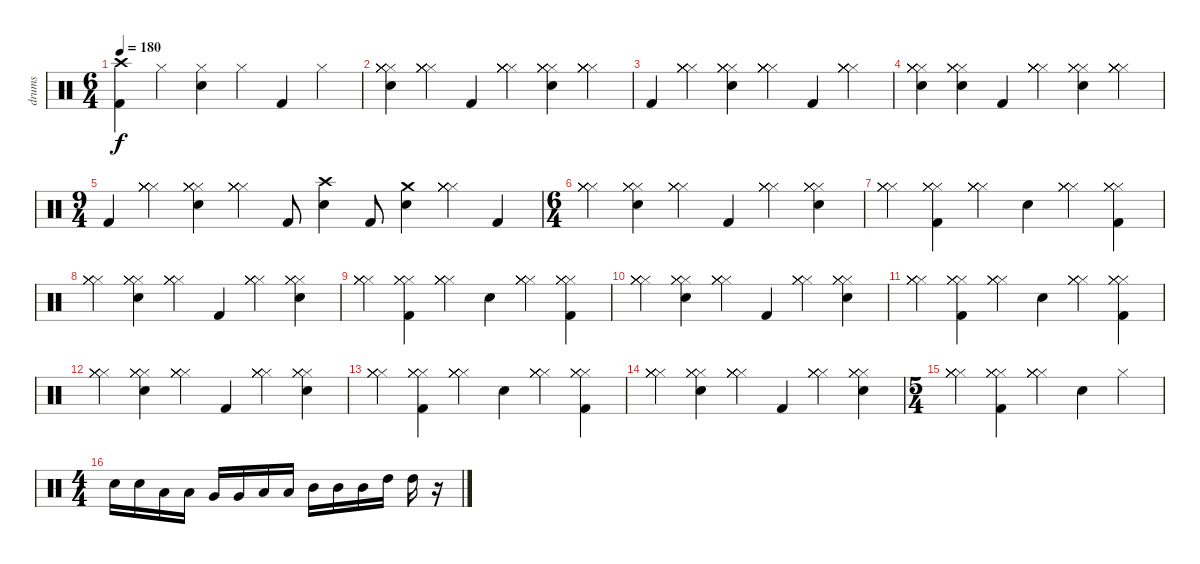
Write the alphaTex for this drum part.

\track ("drums" "drums") {instrument percussion}
\staff {score}
\articulation defaults
\ts (6 4)
\tempo 180
\clef neutral
\ks c
("Crash high (hit)" "Kick (hit) 2").4{dy f} "Hi-Hat (closed)".4 ("Snare (hit) 2" "Hi-Hat (closed)").4 "Hi-Hat (closed)".4 "Kick (hit) 2".4 "Hi-Hat (closed)".4 |
("Snare (hit) 2" "Hi-Hat (closed)" "Hi-Hat (closed)" "Hi-Hat (closed)" "Hi-Hat (closed)" "Hi-Hat (closed)").4 ("Hi-Hat (closed)" "Hi-Hat (closed)" "Hi-Hat (closed)" "Hi-Hat (closed)" "Hi-Hat (closed)" "Hi-Hat (closed)").4 "Kick (hit) 2".4 ("Hi-Hat (closed)" "Hi-Hat (closed)" "Hi-Hat (closed)" "Hi-Hat (closed)" "Hi-Hat (closed)" "Hi-Hat (closed)").4 ("Snare (hit) 2" "Hi-Hat (closed)" "Hi-Hat (closed)" "Hi-Hat (closed)" "Hi-Hat (closed)" "Hi-Hat (closed)").4 ("Hi-Hat (closed)" "Hi-Hat (closed)" "Hi-Hat (closed)" "Hi-Hat (closed)" "Hi-Hat (closed)" "Hi-Hat (closed)").4 |
"Kick (hit) 2".4 ("Hi-Hat (closed)" "Hi-Hat (closed)" "Hi-Hat (closed)" "Hi-Hat (closed)" "Hi-Hat (closed)" "Hi-Hat (closed)").4 ("Snare (hit) 2" "Hi-Hat (closed)" "Hi-Hat (closed)" "Hi-Hat (closed)" "Hi-Hat (closed)" "Hi-Hat (closed)").4 ("Hi-Hat (closed)" "Hi-Hat (closed)" "Hi-Hat (closed)" "Hi-Hat (closed)" "Hi-Hat (closed)" "Hi-Hat (closed)").4 "Kick (hit) 2".4 ("Hi-Hat (closed)" "Hi-Hat (closed)" "Hi-Hat (closed)" "Hi-Hat (closed)" "Hi-Hat (closed)" "Hi-Hat (closed)").4 |
("Snare (hit) 2" "Hi-Hat (closed)" "Hi-Hat (closed)" "Hi-Hat (closed)" "Hi-Hat (closed)" "Hi-Hat (closed)").4 ("Hi-Hat (closed)" "Hi-Hat (closed)" "Hi-Hat (closed)" "Hi-Hat (closed)" "Hi-Hat (closed)" "Snare (hit)").4 "Kick (hit) 2".4 ("Hi-Hat (closed)" "Hi-Hat (closed)" "Hi-Hat (closed)" "Hi-Hat (closed)" "Hi-Hat (closed)" "Hi-Hat (closed)").4 ("Snare (hit) 2" "Hi-Hat (closed)" "Hi-Hat (closed)" "Hi-Hat (closed)" "Hi-Hat (closed)").4 ("Hi-Hat (closed)" "Hi-Hat (closed)" "Hi-Hat (closed)" "Hi-Hat (closed)" "Hi-Hat (closed)" "Hi-Hat (closed)").4 |
\ts (9 4)
"Kick (hit) 2".4 ("Hi-Hat (closed)" "Hi-Hat (closed)" "Hi-Hat (closed)" "Hi-Hat (closed)" "Hi-Hat (closed)" "Hi-Hat (closed)").4 ("Snare (hit) 2" "Hi-Hat (closed)" "Hi-Hat (closed)" "Hi-Hat (closed)" "Hi-Hat (closed)" "Hi-Hat (closed)").4 ("Hi-Hat (closed)" "Hi-Hat (closed)" "Hi-Hat (closed)" "Hi-Hat (closed)" "Hi-Hat (closed)" "Hi-Hat (closed)").4 "Kick (hit) 2".8 ("Crash high (hit)" "Snare (hit) 2").4 "Kick (hit) 2".8 ("Crash medium (hit)" "Snare (hit) 2").4 ("Hi-Hat (closed)" "Hi-Hat (closed)" "Hi-Hat (closed)" "Hi-Hat (closed)" "Hi-Hat (closed)" "Hi-Hat (closed)").4 "Kick (hit) 2".4 |
\ts (6 4)
("Hi-Hat (closed)" "Hi-Hat (closed)" "Hi-Hat (closed)" "Hi-Hat (closed)" "Hi-Hat (closed)").4 ("Snare (hit) 2" "Hi-Hat (closed)" "Hi-Hat (closed)" "Hi-Hat (closed)" "Hi-Hat (closed)").4 ("Hi-Hat (closed)" "Hi-Hat (closed)" "Hi-Hat (closed)" "Hi-Hat (closed)" "Hi-Hat (closed)").4 "Kick (hit) 2".4 ("Hi-Hat (closed)" "Hi-Hat (closed)" "Hi-Hat (closed)" "Hi-Hat (closed)" "Hi-Hat (closed)").4 ("Snare (hit) 2" "Hi-Hat (closed)" "Hi-Hat (closed)" "Hi-Hat (closed)" "Hi-Hat (closed)").4 |
("Hi-Hat (closed)" "Hi-Hat (closed)" "Hi-Hat (closed)" "Hi-Hat (closed)" "Hi-Hat (closed)").4 ("Kick (hit) 2" "Hi-Hat (closed)" "Hi-Hat (closed)" "Hi-Hat (closed)" "Hi-Hat (closed)").4 ("Hi-Hat (closed)" "Hi-Hat (closed)" "Hi-Hat (closed)" "Hi-Hat (closed)" "Hi-Hat (closed)").4 "Snare (hit) 2".4 ("Hi-Hat (closed)" "Hi-Hat (closed)" "Hi-Hat (closed)" "Hi-Hat (closed)" "Hi-Hat (closed)").4 ("Kick (hit) 2" "Hi-Hat (closed)" "Hi-Hat (closed)" "Hi-Hat (closed)" "Hi-Hat (closed)").4 |
("Hi-Hat (closed)" "Hi-Hat (closed)" "Hi-Hat (closed)" "Hi-Hat (closed)" "Hi-Hat (closed)").4 ("Snare (hit) 2" "Hi-Hat (closed)" "Hi-Hat (closed)" "Hi-Hat (closed)" "Hi-Hat (closed)").4 ("Hi-Hat (closed)" "Hi-Hat (closed)" "Hi-Hat (closed)" "Hi-Hat (closed)" "Hi-Hat (closed)").4 "Kick (hit) 2".4 ("Hi-Hat (closed)" "Hi-Hat (closed)" "Hi-Hat (closed)" "Hi-Hat (closed)" "Hi-Hat (closed)").4 ("Snare (hit) 2" "Hi-Hat (closed)" "Hi-Hat (closed)" "Hi-Hat (closed)" "Hi-Hat (closed)").4 |
("Hi-Hat (closed)" "Hi-Hat (closed)" "Hi-Hat (closed)" "Hi-Hat (closed)" "Hi-Hat (closed)").4 ("Kick (hit) 2" "Hi-Hat (closed)" "Hi-Hat (closed)" "Hi-Hat (closed)" "Hi-Hat (closed)").4 ("Hi-Hat (closed)" "Hi-Hat (closed)" "Hi-Hat (closed)" "Hi-Hat (closed)" "Hi-Hat (closed)").4 "Snare (hit) 2".4 ("Hi-Hat (closed)" "Hi-Hat (closed)" "Hi-Hat (closed)" "Hi-Hat (closed)" "Hi-Hat (closed)").4 ("Kick (hit) 2" "Hi-Hat (closed)" "Hi-Hat (closed)" "Hi-Hat (closed)" "Hi-Hat (closed)").4 |
("Hi-Hat (closed)" "Hi-Hat (closed)" "Hi-Hat (closed)" "Hi-Hat (closed)" "Hi-Hat (closed)").4 ("Snare (hit) 2" "Hi-Hat (closed)" "Hi-Hat (closed)" "Hi-Hat (closed)" "Hi-Hat (closed)").4 ("Hi-Hat (closed)" "Hi-Hat (closed)" "Hi-Hat (closed)" "Hi-Hat (closed)" "Hi-Hat (closed)").4 "Kick (hit) 2".4 ("Hi-Hat (closed)" "Hi-Hat (closed)" "Hi-Hat (closed)" "Hi-Hat (closed)" "Hi-Hat (closed)").4 ("Snare (hit) 2" "Hi-Hat (closed)" "Hi-Hat (closed)" "Hi-Hat (closed)" "Hi-Hat (closed)").4 |
("Hi-Hat (closed)" "Hi-Hat (closed)" "Hi-Hat (closed)" "Hi-Hat (closed)" "Hi-Hat (closed)").4 ("Kick (hit) 2" "Hi-Hat (closed)" "Hi-Hat (closed)" "Hi-Hat (closed)" "Hi-Hat (closed)").4 ("Hi-Hat (closed)" "Hi-Hat (closed)" "Hi-Hat (closed)" "Hi-Hat (closed)" "Hi-Hat (closed)").4 "Snare (hit) 2".4 ("Hi-Hat (closed)" "Hi-Hat (closed)" "Hi-Hat (closed)" "Hi-Hat (closed)" "Hi-Hat (closed)").4 ("Kick (hit) 2" "Hi-Hat (closed)" "Hi-Hat (closed)" "Hi-Hat (closed)" "Hi-Hat (closed)").4 |
("Hi-Hat (closed)" "Hi-Hat (closed)" "Hi-Hat (closed)" "Hi-Hat (closed)" "Hi-Hat (closed)").4 ("Snare (hit) 2" "Hi-Hat (closed)" "Hi-Hat (closed)" "Hi-Hat (closed)" "Hi-Hat (closed)").4 ("Hi-Hat (closed)" "Hi-Hat (closed)" "Hi-Hat (closed)" "Hi-Hat (closed)" "Hi-Hat (closed)").4 "Kick (hit) 2".4 ("Hi-Hat (closed)" "Hi-Hat (closed)" "Hi-Hat (closed)" "Hi-Hat (closed)" "Hi-Hat (closed)").4 ("Snare (hit) 2" "Hi-Hat (closed)" "Hi-Hat (closed)" "Hi-Hat (closed)" "Hi-Hat (closed)").4 |
("Hi-Hat (closed)" "Hi-Hat (closed)" "Hi-Hat (closed)" "Hi-Hat (closed)" "Hi-Hat (closed)").4 ("Kick (hit) 2" "Hi-Hat (closed)" "Hi-Hat (closed)" "Hi-Hat (closed)" "Hi-Hat (closed)").4 ("Hi-Hat (closed)" "Hi-Hat (closed)" "Hi-Hat (closed)" "Hi-Hat (closed)" "Hi-Hat (closed)").4 "Snare (hit) 2".4 ("Hi-Hat (closed)" "Hi-Hat (closed)" "Hi-Hat (closed)" "Hi-Hat (closed)" "Hi-Hat (closed)").4 ("Kick (hit) 2" "Hi-Hat (closed)" "Hi-Hat (closed)" "Hi-Hat (closed)" "Hi-Hat (closed)").4 |
("Hi-Hat (closed)" "Hi-Hat (closed)" "Hi-Hat (closed)" "Hi-Hat (closed)" "Hi-Hat (closed)").4 ("Snare (hit) 2" "Hi-Hat (closed)" "Hi-Hat (closed)" "Hi-Hat (closed)" "Hi-Hat (closed)").4 ("Hi-Hat (closed)" "Hi-Hat (closed)" "Hi-Hat (closed)" "Hi-Hat (closed)" "Hi-Hat (closed)").4 "Kick (hit) 2".4 ("Hi-Hat (closed)" "Hi-Hat (closed)" "Hi-Hat (closed)" "Hi-Hat (closed)" "Hi-Hat (closed)").4 ("Snare (hit) 2" "Hi-Hat (closed)" "Hi-Hat (closed)" "Hi-Hat (closed)" "Hi-Hat (closed)").4 |
\ts (5 4)
("Hi-Hat (closed)" "Hi-Hat (closed)" "Hi-Hat (closed)" "Hi-Hat (closed)" "Hi-Hat (closed)").4 ("Kick (hit) 2" "Hi-Hat (closed)" "Hi-Hat (closed)" "Hi-Hat (closed)" "Hi-Hat (closed)").4 ("Hi-Hat (closed)" "Hi-Hat (closed)" "Hi-Hat (closed)" "Hi-Hat (closed)" "Hi-Hat (closed)").4 "Snare (hit) 2".4 "Hi-Hat (closed)".4 |
\ts (4 4)
"Snare (hit) 2".16 "Snare (hit) 2".16 "Low Floor Tom (hit)".16 "Low Floor Tom (hit)".16 "Very Low Tom (hit)".16 "Very Low Tom (hit)".16 "Low Tom (hit)".16 "Low Tom (hit)".16 "Mid Tom (hit)".16 "Mid Tom (hit)".16 "Mid Tom (hit)".16 "High Tom (hit)".16 "High Tom (hit)".16 r.16
